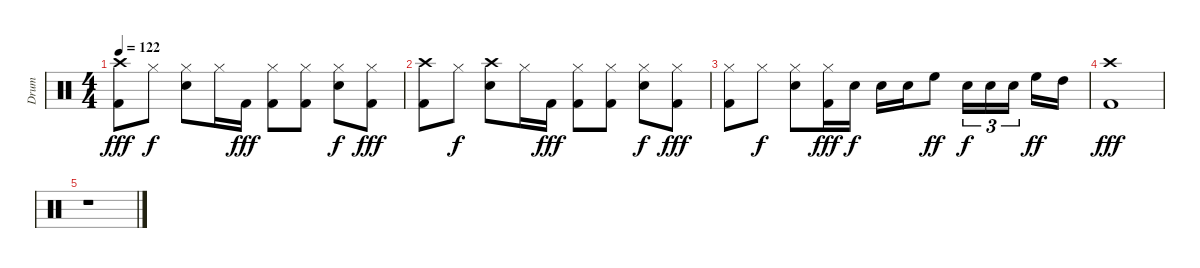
\track ("Drum" "Drum") {instrument percussion}
\staff {score}
\articulation defaults
\ts (4 4)
\tempo 122
\clef neutral
\ks c
("Crash high (hit)" "Kick (hit) 2").8{dy fff} "Hi-Hat (closed)".8{dy f} ("Hi-Hat (closed)" "Snare (hit) 2").8 "Hi-Hat (closed)".16 "Kick (hit) 2".16{dy fff} ("Hi-Hat (closed)" "Kick (hit) 2").8 ("Hi-Hat (closed)" "Kick (hit) 2").8 ("Hi-Hat (closed)" "Snare (hit) 2").8{dy f} ("Hi-Hat (closed)" "Kick (hit) 2").8{dy fff} |
("Crash high (hit)" "Kick (hit) 2").8 "Hi-Hat (closed)".8{dy f} ("Crash high (hit)" "Snare (hit) 2").8 "Hi-Hat (closed)".16 "Kick (hit) 2".16{dy fff} ("Hi-Hat (closed)" "Kick (hit) 2").8 ("Hi-Hat (closed)" "Kick (hit) 2").8 ("Hi-Hat (closed)" "Snare (hit) 2").8{dy f} ("Hi-Hat (closed)" "Kick (hit) 2").8{dy fff} |
("Hi-Hat (closed)" "Kick (hit) 2").8 "Hi-Hat (closed)".8{dy f} ("Hi-Hat (closed)" "Snare (hit) 2").8 ("Hi-Hat (closed)" "Kick (hit) 2").16{dy fff} "Snare (hit) 2".16{dy f} "Snare (hit) 2".16 "Snare (hit) 2".16 "High Floor Tom (hit)".8{dy ff} "Snare (hit) 2".16{tu (3 2) dy f} "Snare (hit) 2".16{tu (3 2)} "Snare (hit) 2".16{tu (3 2)} "High Floor Tom (hit)".16{dy ff} "High Tom (hit)".16 |
("Crash high (hit)" "Kick (hit) 2").1{dy fff} |
r.1
